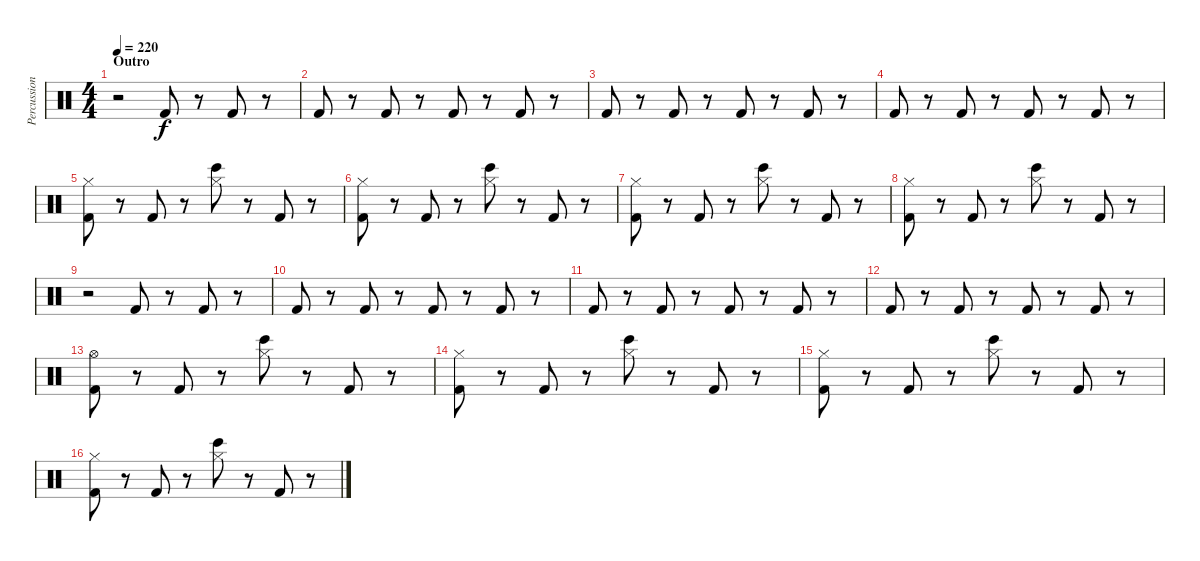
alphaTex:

\track ("Percussion" "Percussion") {instrument percussion}
\staff {score}
\articulation defaults
\ts (4 4)
\section ("" "Outro")
\tempo 220
\clef neutral
\ks c
r.2{dy f} "Kick (hit) 2".8 r.8 "Kick (hit) 2".8 r.8 |
"Kick (hit) 2".8 r.8 "Kick (hit) 2".8 r.8 "Kick (hit) 2".8 r.8 "Kick (hit) 2".8 r.8 |
"Kick (hit) 2".8 r.8 "Kick (hit) 2".8 r.8 "Kick (hit) 2".8 r.8 "Kick (hit) 2".8 r.8 |
"Kick (hit) 2".8 r.8 "Kick (hit) 2".8 r.8 "Kick (hit) 2".8 r.8 "Kick (hit) 2".8 r.8 |
("Kick (hit) 2" "Hi-Hat (closed)").8 r.8 "Kick (hit) 2".8 r.8 ("Bongo High (hit)" "Hi-Hat (closed)").8 r.8 "Kick (hit) 2".8 r.8 |
("Kick (hit) 2" "Hi-Hat (closed)").8 r.8 "Kick (hit) 2".8 r.8 ("Bongo High (hit)" "Hi-Hat (closed)").8 r.8 "Kick (hit) 2".8 r.8 |
("Kick (hit) 2" "Hi-Hat (closed)").8 r.8 "Kick (hit) 2".8 r.8 ("Bongo High (hit)" "Hi-Hat (closed)").8 r.8 "Kick (hit) 2".8 r.8 |
("Kick (hit) 2" "Hi-Hat (closed)").8 r.8 "Kick (hit) 2".8 r.8 ("Bongo High (hit)" "Hi-Hat (closed)").8 r.8 "Kick (hit) 2".8 r.8 |
r.2 "Kick (hit) 2".8 r.8 "Kick (hit) 2".8 r.8 |
"Kick (hit) 2".8 r.8 "Kick (hit) 2".8 r.8 "Kick (hit) 2".8 r.8 "Kick (hit) 2".8 r.8 |
"Kick (hit) 2".8 r.8 "Kick (hit) 2".8 r.8 "Kick (hit) 2".8 r.8 "Kick (hit) 2".8 r.8 |
"Kick (hit) 2".8 r.8 "Kick (hit) 2".8 r.8 "Kick (hit) 2".8 r.8 "Kick (hit) 2".8 r.8 |
("Kick (hit) 2" "Hi-Hat (open)").8 r.8 "Kick (hit) 2".8 r.8 ("Bongo High (hit)" "Hi-Hat (closed)").8 r.8 "Kick (hit) 2".8 r.8 |
("Kick (hit) 2" "Hi-Hat (closed)").8 r.8 "Kick (hit) 2".8 r.8 ("Bongo High (hit)" "Hi-Hat (closed)").8 r.8 "Kick (hit) 2".8 r.8 |
("Kick (hit) 2" "Hi-Hat (closed)").8 r.8 "Kick (hit) 2".8 r.8 ("Bongo High (hit)" "Hi-Hat (closed)").8 r.8 "Kick (hit) 2".8 r.8 |
("Kick (hit) 2" "Hi-Hat (closed)").8 r.8 "Kick (hit) 2".8 r.8 ("Bongo High (hit)" "Hi-Hat (closed)").8 r.8 "Kick (hit) 2".8 r.8
